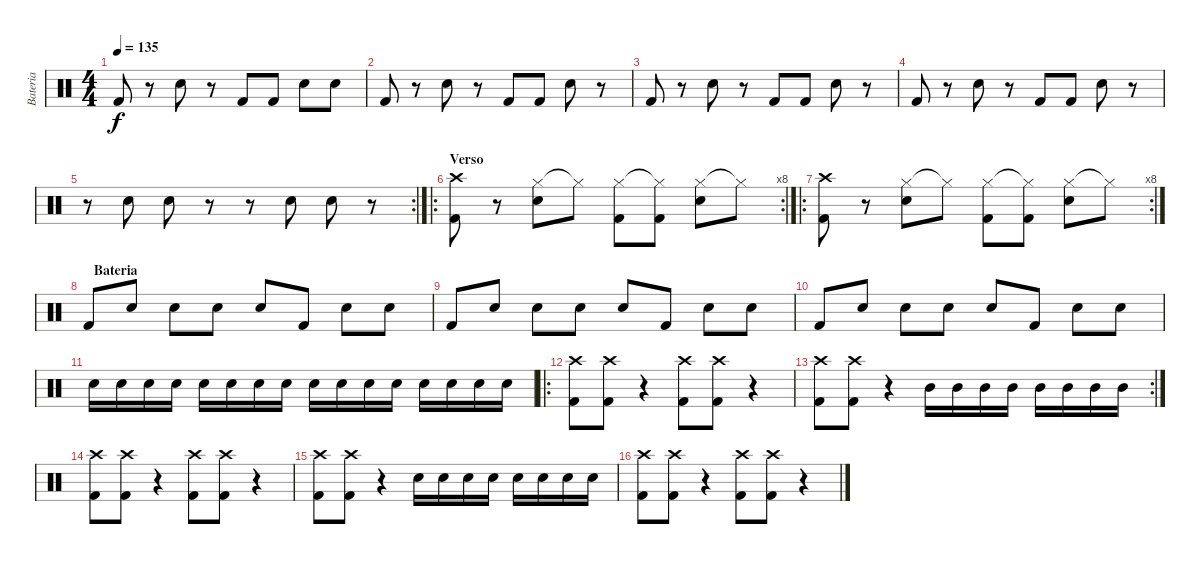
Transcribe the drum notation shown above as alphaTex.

\track ("Bateria" "Bateria") {instrument percussion}
\staff {score}
\articulation defaults
\ts (4 4)
\tempo 135
\clef neutral
\ks c "Kick (hit) 2".8{dy f}
r.8 "Snare (hit) 2".8 r.8 "Kick (hit) 2".8 "Kick (hit) 2".8 "Snare (hit) 2".8 "Snare (hit) 2".8 |
"Kick (hit) 2".8 r.8 "Snare (hit) 2".8 r.8 "Kick (hit) 2".8 "Kick (hit) 2".8 "Snare (hit) 2".8 r.8 |
"Kick (hit) 2".8 r.8 "Snare (hit) 2".8 r.8 "Kick (hit) 2".8 "Kick (hit) 2".8 "Snare (hit) 2".8 r.8 |
"Kick (hit) 2".8 r.8 "Snare (hit) 2".8 r.8 "Kick (hit) 2".8 "Kick (hit) 2".8 "Snare (hit) 2".8 r.8 |
\rc 2
r.8 "Snare (hit) 2".8 "Snare (hit) 2".8 r.8 r.8 "Snare (hit) 2".8 "Snare (hit) 2".8 r.8 |
\ro
\rc 8
\section ("" "Verso")
("Crash high (hit)" "Kick (hit) 2").8 r.8 ("Hi-Hat (closed)" "Snare (hit) 2").8 "Hi-Hat (closed)"{t}.8 ("Hi-Hat (closed)" "Kick (hit) 2").8 ("Hi-Hat (closed)"{t} "Kick (hit) 2").8 ("Hi-Hat (closed)" "Snare (hit) 2").8 "Hi-Hat (closed)"{t}.8 |
\ro
\rc 8
("Crash high (hit)" "Kick (hit) 2").8 r.8 ("Hi-Hat (closed)" "Snare (hit) 2").8 "Hi-Hat (closed)"{t}.8 ("Hi-Hat (closed)" "Kick (hit) 2").8 ("Hi-Hat (closed)"{t} "Kick (hit) 2").8 ("Hi-Hat (closed)" "Snare (hit) 2").8 "Hi-Hat (closed)"{t}.8 |
\section ("" "   Bateria")
"Kick (hit) 2".8 "Snare (hit) 2".8 "Snare (hit) 2".8 "Snare (hit) 2".8 "Snare (hit) 2".8 "Kick (hit) 2".8 "Snare (hit) 2".8 "Snare (hit) 2".8 |
"Kick (hit) 2".8 "Snare (hit) 2".8 "Snare (hit) 2".8 "Snare (hit) 2".8 "Snare (hit) 2".8 "Kick (hit) 2".8 "Snare (hit) 2".8 "Snare (hit) 2".8 |
"Kick (hit) 2".8 "Snare (hit) 2".8 "Snare (hit) 2".8 "Snare (hit) 2".8 "Snare (hit) 2".8 "Kick (hit) 2".8 "Snare (hit) 2".8 "Snare (hit) 2".8 |
"Snare (hit) 2".16 "Snare (hit) 2".16 "Snare (hit) 2".16 "Snare (hit) 2".16 "Snare (hit) 2".16 "Snare (hit) 2".16 "Snare (hit) 2".16 "Snare (hit) 2".16 "Snare (hit) 2".16 "Snare (hit) 2".16 "Snare (hit) 2".16 "Snare (hit) 2".16 "Snare (hit) 2".16 "Snare (hit) 2".16 "Snare (hit) 2".16 "Snare (hit) 2".16 |
\ro
("Crash high (hit)" "Kick (hit) 2").8 ("Crash high (hit)" "Kick (hit) 2").8 r.4 ("Crash high (hit)" "Kick (hit) 2").8 ("Crash high (hit)" "Kick (hit) 2").8 r.4 |
\rc 2
("Crash high (hit)" "Kick (hit) 2").8 ("Crash high (hit)" "Kick (hit) 2").8 r.4 "Mid Tom (hit)".16 "Mid Tom (hit)".16 "Mid Tom (hit)".16 "Mid Tom (hit)".16 "Mid Tom (hit)".16 "Mid Tom (hit)".16 "Mid Tom (hit)".16 "Mid Tom (hit)".16 |
("Crash high (hit)" "Kick (hit) 2").8 ("Crash high (hit)" "Kick (hit) 2").8 r.4 ("Crash high (hit)" "Kick (hit) 2").8 ("Crash high (hit)" "Kick (hit) 2").8 r.4 |
("Crash high (hit)" "Kick (hit) 2").8 ("Crash high (hit)" "Kick (hit) 2").8 r.4 "Snare (hit) 2".16 "Snare (hit) 2".16 "Snare (hit) 2".16 "Snare (hit) 2".16 "Snare (hit) 2".16 "Snare (hit) 2".16 "Snare (hit) 2".16 "Snare (hit) 2".16 |
("Crash high (hit)" "Kick (hit) 2").8 ("Crash high (hit)" "Kick (hit) 2").8 r.4 ("Crash high (hit)" "Kick (hit) 2").8 ("Crash high (hit)" "Kick (hit) 2").8 r.4
